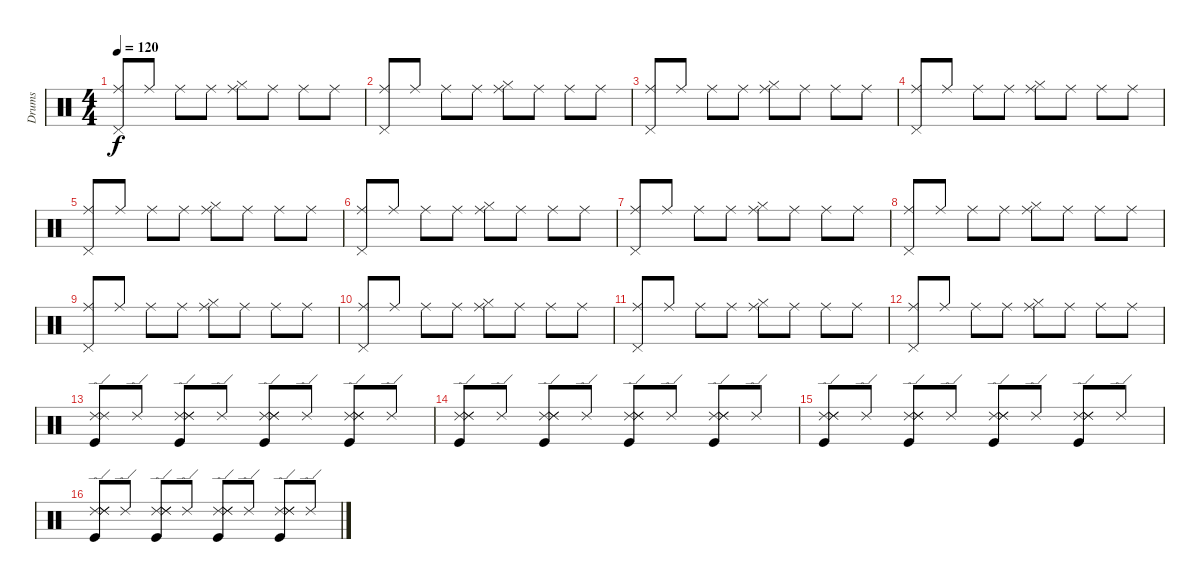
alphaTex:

\track ("Drums" "Drums") {instrument percussion}
\staff {score}
\articulation defaults
\ts (4 4)
\tempo 120
\clef neutral
\ks c
("Pedal Hi-Hat (hit)" "Ride (middle)").8{dy f} "Ride (middle)".8 "Ride (middle)".8 "Ride (middle)".8 ("Ride (middle)" "Hi-Hat (closed)").8 "Ride (middle)".8 "Ride (middle)".8 "Ride (middle)".8 |
("Pedal Hi-Hat (hit)" "Ride (middle)").8 "Ride (middle)".8 "Ride (middle)".8 "Ride (middle)".8 ("Ride (middle)" "Hi-Hat (closed)").8 "Ride (middle)".8 "Ride (middle)".8 "Ride (middle)".8 |
("Pedal Hi-Hat (hit)" "Ride (middle)").8 "Ride (middle)".8 "Ride (middle)".8 "Ride (middle)".8 ("Ride (middle)" "Hi-Hat (closed)").8 "Ride (middle)".8 "Ride (middle)".8 "Ride (middle)".8 |
("Pedal Hi-Hat (hit)" "Ride (middle)").8 "Ride (middle)".8 "Ride (middle)".8 "Ride (middle)".8 ("Ride (middle)" "Hi-Hat (closed)").8 "Ride (middle)".8 "Ride (middle)".8 "Ride (middle)".8 |
("Pedal Hi-Hat (hit)" "Ride (middle)").8 "Ride (middle)".8 "Ride (middle)".8 "Ride (middle)".8 ("Ride (middle)" "Hi-Hat (closed)").8 "Ride (middle)".8 "Ride (middle)".8 "Ride (middle)".8 |
("Pedal Hi-Hat (hit)" "Ride (middle)").8 "Ride (middle)".8 "Ride (middle)".8 "Ride (middle)".8 ("Ride (middle)" "Hi-Hat (closed)").8 "Ride (middle)".8 "Ride (middle)".8 "Ride (middle)".8 |
("Pedal Hi-Hat (hit)" "Ride (middle)").8 "Ride (middle)".8 "Ride (middle)".8 "Ride (middle)".8 ("Ride (middle)" "Hi-Hat (closed)").8 "Ride (middle)".8 "Ride (middle)".8 "Ride (middle)".8 |
("Pedal Hi-Hat (hit)" "Ride (middle)").8 "Ride (middle)".8 "Ride (middle)".8 "Ride (middle)".8 ("Ride (middle)" "Hi-Hat (closed)").8 "Ride (middle)".8 "Ride (middle)".8 "Ride (middle)".8 |
("Pedal Hi-Hat (hit)" "Ride (middle)").8 "Ride (middle)".8 "Ride (middle)".8 "Ride (middle)".8 ("Ride (middle)" "Hi-Hat (closed)").8 "Ride (middle)".8 "Ride (middle)".8 "Ride (middle)".8 |
("Pedal Hi-Hat (hit)" "Ride (middle)").8 "Ride (middle)".8 "Ride (middle)".8 "Ride (middle)".8 ("Ride (middle)" "Hi-Hat (closed)").8 "Ride (middle)".8 "Ride (middle)".8 "Ride (middle)".8 |
("Pedal Hi-Hat (hit)" "Ride (middle)").8 "Ride (middle)".8 "Ride (middle)".8 "Ride (middle)".8 ("Ride (middle)" "Hi-Hat (closed)").8 "Ride (middle)".8 "Ride (middle)".8 "Ride (middle)".8 |
("Pedal Hi-Hat (hit)" "Ride (middle)").8 "Ride (middle)".8 "Ride (middle)".8 "Ride (middle)".8 ("Ride (middle)" "Hi-Hat (closed)").8 "Ride (middle)".8 "Ride (middle)".8 "Ride (middle)".8 |
("Kick (hit)" "Ride (edge) 2" "Ride (edge) 2").8 "Ride (edge) 2".8 ("Ride (edge) 2" "Kick (hit)" "Ride (edge) 2" "Ride (edge) 2").8 "Ride (edge) 2".8 ("Ride (edge) 2" "Ride (edge) 2" "Kick (hit)" "Ride (edge) 2").8 "Ride (edge) 2".8 ("Ride (edge) 2" "Kick (hit)" "Ride (edge) 2" "Ride (edge) 2").8 "Ride (edge) 2".8 |
("Ride (edge) 2" "Kick (hit)" "Ride (edge) 2" "Ride (edge) 2").8 "Ride (edge) 2".8 ("Ride (edge) 2" "Ride (edge) 2" "Kick (hit)" "Ride (edge) 2").8 "Ride (edge) 2".8 ("Ride (edge) 2" "Ride (edge) 2" "Kick (hit)" "Ride (edge) 2").8 "Ride (edge) 2".8 ("Ride (edge) 2" "Ride (edge) 2" "Kick (hit)" "Ride (edge) 2").8 "Ride (edge) 2".8 |
("Ride (edge) 2" "Ride (edge) 2" "Kick (hit)" "Ride (edge) 2").8 "Ride (edge) 2".8 ("Ride (edge) 2" "Kick (hit)" "Ride (edge) 2" "Ride (edge) 2").8 "Ride (edge) 2".8 ("Ride (edge) 2" "Ride (edge) 2" "Kick (hit)" "Ride (edge) 2").8 "Ride (edge) 2".8 ("Ride (edge) 2" "Kick (hit)" "Ride (edge) 2" "Ride (edge) 2").8 "Ride (edge) 2".8 |
("Ride (edge) 2" "Kick (hit)" "Ride (edge) 2" "Ride (edge) 2").8 "Ride (edge) 2".8 ("Ride (edge) 2" "Ride (edge) 2" "Kick (hit)" "Ride (edge) 2").8 "Ride (edge) 2".8 ("Ride (edge) 2" "Ride (edge) 2" "Kick (hit)" "Ride (edge) 2").8 "Ride (edge) 2".8 ("Ride (edge) 2" "Ride (edge) 2" "Kick (hit)" "Ride (edge) 2").8 "Ride (edge) 2".8
